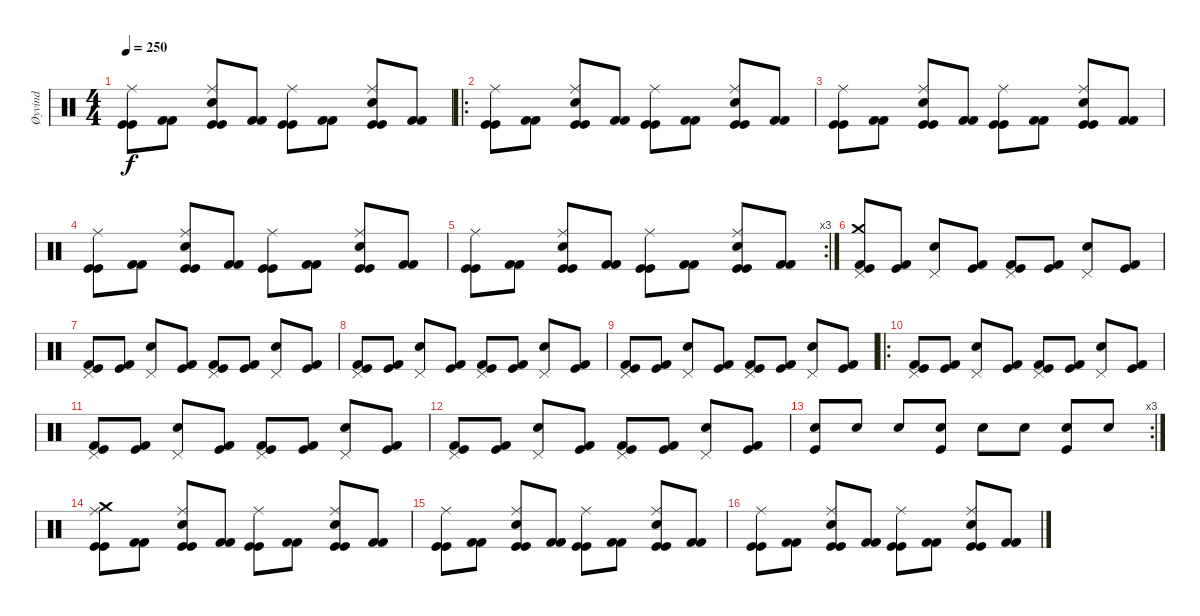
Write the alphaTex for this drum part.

\track ("Øyvind" "Øyvind") {instrument percussion}
\staff {score}
\articulation defaults
\ts (4 4)
\tempo 250
\clef neutral
\ks c
("Kick (hit)" "Ride (middle)" "Kick (hit)").8{dy f} ("Kick (hit) 2" "Kick (hit) 2").8 ("Kick (hit)" "Snare (hit) 2" "Ride (middle)" "Kick (hit)").8 ("Kick (hit) 2" "Kick (hit) 2").8 ("Kick (hit)" "Ride (middle)" "Kick (hit)").8 ("Kick (hit) 2" "Kick (hit) 2").8 ("Kick (hit)" "Snare (hit) 2" "Ride (middle)" "Kick (hit)").8 ("Kick (hit) 2" "Kick (hit) 2").8 |
\ro
("Kick (hit)" "Ride (middle)" "Kick (hit)").8 ("Kick (hit) 2" "Kick (hit) 2").8 ("Kick (hit)" "Snare (hit) 2" "Ride (middle)" "Kick (hit)").8 ("Kick (hit) 2" "Kick (hit) 2").8 ("Kick (hit)" "Ride (middle)" "Kick (hit)").8 ("Kick (hit) 2" "Kick (hit) 2").8 ("Kick (hit)" "Snare (hit) 2" "Ride (middle)" "Kick (hit)").8 ("Kick (hit) 2" "Kick (hit) 2").8 |
("Kick (hit)" "Ride (middle)" "Kick (hit)").8 ("Kick (hit) 2" "Kick (hit) 2").8 ("Kick (hit)" "Snare (hit) 2" "Ride (middle)" "Kick (hit)").8 ("Kick (hit) 2" "Kick (hit) 2").8 ("Kick (hit)" "Ride (middle)" "Kick (hit)").8 ("Kick (hit) 2" "Kick (hit) 2").8 ("Kick (hit)" "Snare (hit) 2" "Ride (middle)" "Kick (hit)").8 ("Kick (hit) 2" "Kick (hit) 2").8 |
("Kick (hit)" "Ride (middle)" "Kick (hit)").8 ("Kick (hit) 2" "Kick (hit) 2").8 ("Kick (hit)" "Snare (hit) 2" "Ride (middle)" "Kick (hit)").8 ("Kick (hit) 2" "Kick (hit) 2").8 ("Kick (hit)" "Ride (middle)" "Kick (hit)").8 ("Kick (hit) 2" "Kick (hit) 2").8 ("Kick (hit)" "Snare (hit) 2" "Ride (middle)" "Kick (hit)").8 ("Kick (hit) 2" "Kick (hit) 2").8 |
\rc 3
("Kick (hit)" "Ride (middle)" "Kick (hit)").8 ("Kick (hit) 2" "Kick (hit) 2").8 ("Kick (hit)" "Snare (hit) 2" "Ride (middle)" "Kick (hit)").8 ("Kick (hit) 2" "Kick (hit) 2").8 ("Kick (hit)" "Ride (middle)" "Kick (hit)").8 ("Kick (hit) 2" "Kick (hit) 2").8 ("Kick (hit)" "Snare (hit) 2" "Ride (middle)" "Kick (hit)").8 ("Kick (hit) 2" "Kick (hit) 2").8 |
("Kick (hit) 2" "Crash medium (hit)" "Pedal Hi-Hat (hit)" "Kick (hit)").8 ("Kick (hit) 2" "Kick (hit)").8 ("Snare (hit) 2" "Pedal Hi-Hat (hit)").8 ("Kick (hit) 2" "Kick (hit)").8 ("Kick (hit) 2" "Pedal Hi-Hat (hit)" "Kick (hit)").8 ("Kick (hit) 2" "Kick (hit)").8 ("Snare (hit) 2" "Pedal Hi-Hat (hit)").8 ("Kick (hit) 2" "Kick (hit)").8 |
("Kick (hit) 2" "Pedal Hi-Hat (hit)" "Kick (hit)").8 ("Kick (hit) 2" "Kick (hit)").8 ("Snare (hit) 2" "Pedal Hi-Hat (hit)").8 ("Kick (hit) 2" "Kick (hit)").8 ("Kick (hit) 2" "Pedal Hi-Hat (hit)" "Kick (hit)").8 ("Kick (hit) 2" "Kick (hit)").8 ("Snare (hit) 2" "Pedal Hi-Hat (hit)").8 ("Kick (hit) 2" "Kick (hit)").8 |
("Kick (hit) 2" "Pedal Hi-Hat (hit)" "Kick (hit)").8 ("Kick (hit) 2" "Kick (hit)").8 ("Snare (hit) 2" "Pedal Hi-Hat (hit)").8 ("Kick (hit) 2" "Kick (hit)").8 ("Kick (hit) 2" "Pedal Hi-Hat (hit)" "Kick (hit)").8 ("Kick (hit) 2" "Kick (hit)").8 ("Snare (hit) 2" "Pedal Hi-Hat (hit)").8 ("Kick (hit) 2" "Kick (hit)").8 |
("Kick (hit) 2" "Pedal Hi-Hat (hit)" "Kick (hit)").8 ("Kick (hit) 2" "Kick (hit)").8 ("Snare (hit) 2" "Pedal Hi-Hat (hit)").8 ("Kick (hit) 2" "Kick (hit)").8 ("Kick (hit) 2" "Pedal Hi-Hat (hit)" "Kick (hit)").8 ("Kick (hit) 2" "Kick (hit)").8 ("Snare (hit) 2" "Pedal Hi-Hat (hit)").8 ("Kick (hit) 2" "Kick (hit)").8 |
\ro
("Kick (hit) 2" "Pedal Hi-Hat (hit)" "Kick (hit)").8 ("Kick (hit) 2" "Kick (hit)").8 ("Snare (hit) 2" "Pedal Hi-Hat (hit)").8 ("Kick (hit) 2" "Kick (hit)").8 ("Kick (hit) 2" "Pedal Hi-Hat (hit)" "Kick (hit)").8 ("Kick (hit) 2" "Kick (hit)").8 ("Snare (hit) 2" "Pedal Hi-Hat (hit)").8 ("Kick (hit) 2" "Kick (hit)").8 |
("Kick (hit) 2" "Pedal Hi-Hat (hit)" "Kick (hit)").8 ("Kick (hit) 2" "Kick (hit)").8 ("Snare (hit) 2" "Pedal Hi-Hat (hit)").8 ("Kick (hit) 2" "Kick (hit)").8 ("Kick (hit) 2" "Pedal Hi-Hat (hit)" "Kick (hit)").8 ("Kick (hit) 2" "Kick (hit)").8 ("Snare (hit) 2" "Pedal Hi-Hat (hit)").8 ("Kick (hit) 2" "Kick (hit)").8 |
("Kick (hit) 2" "Pedal Hi-Hat (hit)" "Kick (hit)").8 ("Kick (hit) 2" "Kick (hit)").8 ("Snare (hit) 2" "Pedal Hi-Hat (hit)").8 ("Kick (hit) 2" "Kick (hit)").8 ("Kick (hit) 2" "Pedal Hi-Hat (hit)" "Kick (hit)").8 ("Kick (hit) 2" "Kick (hit)").8 ("Snare (hit) 2" "Pedal Hi-Hat (hit)").8 ("Kick (hit) 2" "Kick (hit)").8 |
\rc 3
("Kick (hit)" "Snare (hit) 2").8 "Snare (hit) 2".8 "Snare (hit) 2".8 ("Kick (hit)" "Snare (hit) 2").8 "Snare (hit) 2".8 "Snare (hit) 2".8 ("Kick (hit)" "Snare (hit) 2").8 "Snare (hit) 2".8 |
("Kick (hit)" "Crash medium (hit)" "Ride (middle)" "Kick (hit)").8 ("Kick (hit) 2" "Kick (hit) 2").8 ("Kick (hit)" "Snare (hit) 2" "Ride (middle)" "Kick (hit)").8 ("Kick (hit) 2" "Kick (hit) 2").8 ("Kick (hit)" "Ride (middle)" "Kick (hit)").8 ("Kick (hit) 2" "Kick (hit) 2").8 ("Kick (hit)" "Snare (hit) 2" "Ride (middle)" "Kick (hit)").8 ("Kick (hit) 2" "Kick (hit) 2").8 |
("Kick (hit)" "Ride (middle)" "Kick (hit)").8 ("Kick (hit) 2" "Kick (hit) 2").8 ("Kick (hit)" "Snare (hit) 2" "Ride (middle)" "Kick (hit)").8 ("Kick (hit) 2" "Kick (hit) 2").8 ("Kick (hit)" "Ride (middle)" "Kick (hit)").8 ("Kick (hit) 2" "Kick (hit) 2").8 ("Kick (hit)" "Snare (hit) 2" "Ride (middle)" "Kick (hit)").8 ("Kick (hit) 2" "Kick (hit) 2").8 |
("Kick (hit)" "Ride (middle)" "Kick (hit)").8 ("Kick (hit) 2" "Kick (hit) 2").8 ("Kick (hit)" "Snare (hit) 2" "Ride (middle)" "Kick (hit)").8 ("Kick (hit) 2" "Kick (hit) 2").8 ("Kick (hit)" "Ride (middle)" "Kick (hit)").8 ("Kick (hit) 2" "Kick (hit) 2").8 ("Kick (hit)" "Snare (hit) 2" "Ride (middle)" "Kick (hit)").8 ("Kick (hit) 2" "Kick (hit) 2").8
